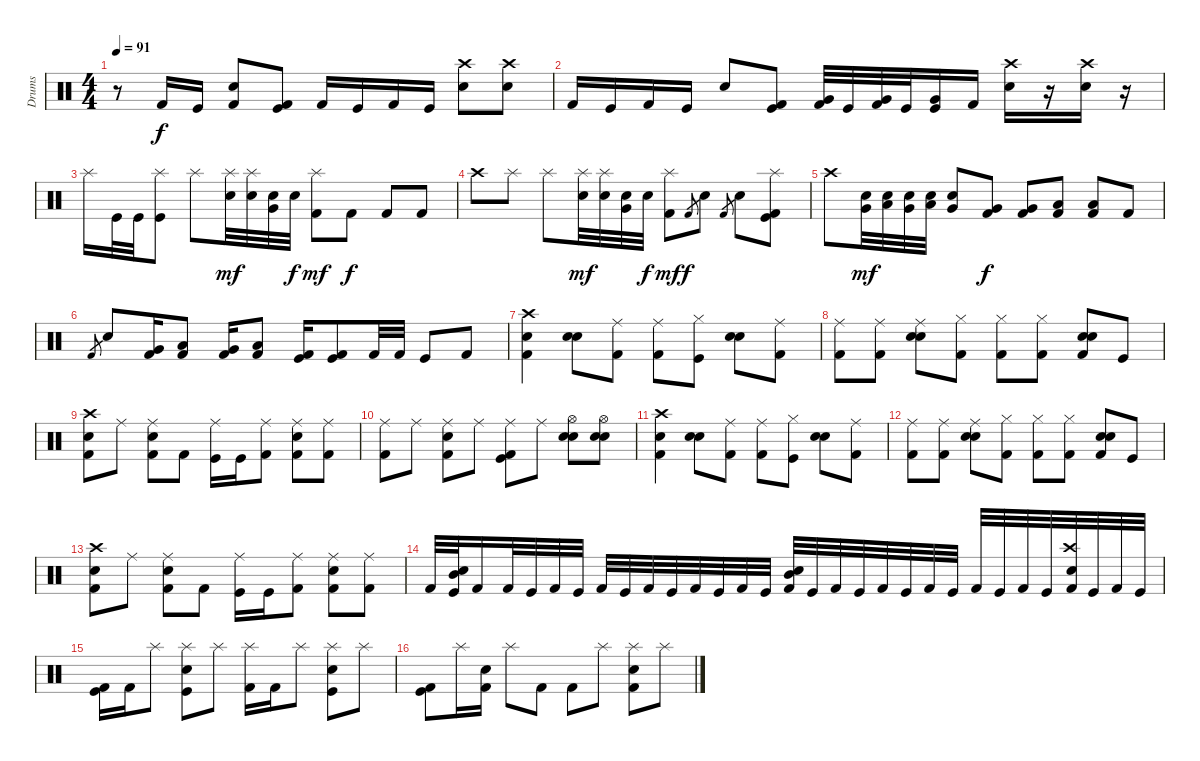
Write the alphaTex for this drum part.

\track ("Drums" "Drums") {instrument percussion}
\staff {score}
\articulation defaults
\ts (4 4)
\tempo 91
\clef neutral
\ks c
r.8{dy f} "Kick (hit) 2".16 "Kick (hit)".16 ("Kick (hit) 2" "Snare (hit) 2").8 ("Kick (hit) 2" "Kick (hit)").8 "Kick (hit) 2".16 "Kick (hit)".16 "Kick (hit) 2".16 "Kick (hit)".16 ("Snare (hit) 2" "Crash high (hit)").8 ("Snare (hit) 2" "Crash high (hit)").8 |
"Kick (hit) 2".16 "Kick (hit)".16 "Kick (hit) 2".16 "Kick (hit)".16 "Snare (hit) 2".8 ("Kick (hit) 2" "Kick (hit)").8 ("Kick (hit) 2" "Very Low Tom (hit)").32 "Kick (hit)".32 ("Kick (hit) 2" "Very Low Tom (hit)").32 "Kick (hit)".32 ("Kick (hit)" "Very Low Tom (hit)").16 "Kick (hit) 2".16 ("Snare (hit) 2" "Crash high (hit)").16 r.16 ("Snare (hit) 2" "Crash high (hit)").16 r.16 |
"Splash (hit)".16 "Kick (hit)".32 "Kick (hit)".32 ("Splash (hit)" "Kick (hit)").8 "Splash (hit)".8 ("Splash (hit)" "Electric Snare (hit)").32{dy mf} ("Splash (hit)" "Electric Snare (hit)").32 ("Electric Snare (hit)" "Very Low Tom (hit)").32 "Electric Snare (hit)".32{dy f} ("Splash (hit)" "Kick (hit) 2").8{dy mf} "Kick (hit) 2".8{dy f} "Kick (hit) 2".8 "Kick (hit) 2".8 |
"Crash high (hit)".8 "Splash (hit)".8 "Splash (hit)".8 ("Splash (hit)" "Electric Snare (hit)").32{dy mf} ("Splash (hit)" "Electric Snare (hit)").32 ("Electric Snare (hit)" "Very Low Tom (hit)").32 "Electric Snare (hit)".32{dy f} ("Splash (hit)" "Kick (hit) 2").8{dy mf} "Kick (hit) 2".8{gr dy f} "Electric Snare (hit)".8 "Kick (hit) 2".8{gr} "Snare (hit) 2".8 ("Kick (hit)" "Kick (hit) 2" "Splash (hit)").8 |
"Crash high (hit)".8 ("Snare (hit) 2" "Very Low Tom (hit)").32{dy mf} ("Snare (hit) 2" "Low Tom (hit)").32 ("Snare (hit) 2" "Very Low Tom (hit)").32 ("Snare (hit) 2" "Low Tom (hit)").32 ("Snare (hit) 2" "Very Low Tom (hit)").8 ("Kick (hit) 2" "Very Low Tom (hit)").8{dy f} ("Kick (hit) 2" "Very Low Tom (hit)").8 ("Kick (hit) 2" "Low Tom (hit)").8 ("Kick (hit) 2" "Low Tom (hit)").8 "Kick (hit) 2".8 |
"Kick (hit) 2".8{gr} "Snare (hit) 2".8 ("Kick (hit) 2" "Very Low Tom (hit)").16 ("Kick (hit) 2" "Low Tom (hit)").8 ("Kick (hit) 2" "Very Low Tom (hit)").16 ("Kick (hit) 2" "Low Tom (hit)").8 ("Kick (hit) 2" "Kick (hit)").16 ("Kick (hit) 2" "Kick (hit)").8 "Kick (hit) 2".32 "Kick (hit) 2".32 "Kick (hit)".8 "Kick (hit) 2".8 |
("Kick (hit) 2" "Snare (hit) 2" "Crash high (hit)").4 ("Snare (hit) 2" "Electric Snare (hit)").8 ("Ride (middle)" "Kick (hit) 2").8 ("Ride (middle)" "Kick (hit) 2").8 ("Hi-Hat (closed)" "Kick (hit)").8 ("Snare (hit) 2" "Electric Snare (hit)").8 ("Ride (middle)" "Kick (hit) 2").8 |
("Ride (middle)" "Kick (hit) 2").8 ("Ride (middle)" "Kick (hit) 2").8 ("Ride (middle)" "Snare (hit) 2" "Electric Snare (hit)").8 ("Hi-Hat (closed)" "Kick (hit) 2").8 ("Hi-Hat (closed)" "Kick (hit) 2").8 ("Hi-Hat (closed)" "Kick (hit) 2").8 ("Electric Snare (hit)" "Kick (hit) 2" "Snare (hit) 2").8 "Kick (hit)".8 |
("Crash high (hit)" "Kick (hit) 2" "Snare (hit) 2").8 "Ride (middle)".8 ("Ride (middle)" "Snare (hit) 2" "Kick (hit) 2").8 "Kick (hit) 2".8 ("Ride (middle)" "Kick (hit)").16 "Kick (hit)".16 ("Ride (middle)" "Kick (hit) 2").8 ("Ride (middle)" "Kick (hit) 2" "Snare (hit) 2").8 ("Ride (middle)" "Kick (hit) 2").8 |
("Ride (middle)" "Kick (hit) 2").8 "Ride (middle)".8 ("Ride (middle)" "Snare (hit) 2" "Kick (hit) 2").8 "Ride (middle)".8 ("Ride (middle)" "Kick (hit) 2" "Kick (hit)").8 "Ride (middle)".8 ("Hi-Hat (open)" "Electric Snare (hit)" "Snare (hit) 2").8 ("Hi-Hat (open)" "Electric Snare (hit)" "Snare (hit) 2").8 |
("Kick (hit) 2" "Snare (hit) 2" "Crash high (hit)").4 ("Snare (hit) 2" "Electric Snare (hit)").8 ("Ride (middle)" "Kick (hit) 2").8 ("Ride (middle)" "Kick (hit) 2").8 ("Hi-Hat (closed)" "Kick (hit)").8 ("Snare (hit) 2" "Electric Snare (hit)").8 ("Ride (middle)" "Kick (hit) 2").8 |
("Ride (middle)" "Kick (hit) 2").8 ("Ride (middle)" "Kick (hit) 2").8 ("Ride (middle)" "Snare (hit) 2" "Electric Snare (hit)").8 ("Hi-Hat (closed)" "Kick (hit) 2").8 ("Hi-Hat (closed)" "Kick (hit) 2").8 ("Hi-Hat (closed)" "Kick (hit) 2").8 ("Electric Snare (hit)" "Kick (hit) 2" "Snare (hit) 2").8 "Kick (hit)".8 |
("Crash high (hit)" "Kick (hit) 2" "Snare (hit) 2").8 "Ride (middle)".8 ("Ride (middle)" "Snare (hit) 2" "Kick (hit) 2").8 "Kick (hit) 2".8 ("Ride (middle)" "Kick (hit)").16 "Kick (hit)".16 ("Ride (middle)" "Kick (hit) 2").8 ("Ride (middle)" "Kick (hit) 2" "Snare (hit) 2").8 ("Ride (middle)" "Kick (hit) 2").8 |
"Kick (hit) 2".32 ("Mid Tom (hit)" "Kick (hit)" "Electric Snare (hit)").32 "Kick (hit) 2".16 "Kick (hit) 2".32 "Kick (hit)".32 "Kick (hit) 2".32 "Kick (hit)".32 "Kick (hit) 2".32 "Kick (hit)".32 "Kick (hit) 2".32 "Kick (hit)".32 "Kick (hit) 2".32 "Kick (hit)".32 "Kick (hit) 2".32 "Kick (hit)".32 ("Mid Tom (hit)" "Kick (hit) 2" "Electric Snare (hit)").32 "Kick (hit)".32 "Kick (hit) 2".32 "Kick (hit)".32 "Kick (hit) 2".32 "Kick (hit)".32 "Kick (hit) 2".32 "Kick (hit)".32 "Kick (hit) 2".32 "Kick (hit)".32 "Kick (hit) 2".32 "Kick (hit)".32 ("Crash high (hit)" "Kick (hit) 2" "Electric Snare (hit)").32 "Kick (hit)".32 "Kick (hit) 2".32 "Kick (hit)".32 |
("Kick (hit)" "Kick (hit) 2").16 "Kick (hit) 2".16 "Splash (hit)".8 ("Splash (hit)" "Electric Snare (hit)" "Kick (hit)").8 "Splash (hit)".8 ("Splash (hit)" "Kick (hit) 2").16 "Kick (hit) 2".16 "Splash (hit)".8 ("Splash (hit)" "Electric Snare (hit)" "Kick (hit)").8 "Splash (hit)".8 |
("Kick (hit) 2" "Kick (hit)").8 "Splash (hit)".16 ("Kick (hit) 2" "Snare (hit) 2").16 "Splash (hit)".8 "Kick (hit) 2".8 "Kick (hit) 2".8 "Splash (hit)".8 ("Splash (hit)" "Kick (hit) 2" "Snare (hit) 2").8 "Splash (hit)".8
